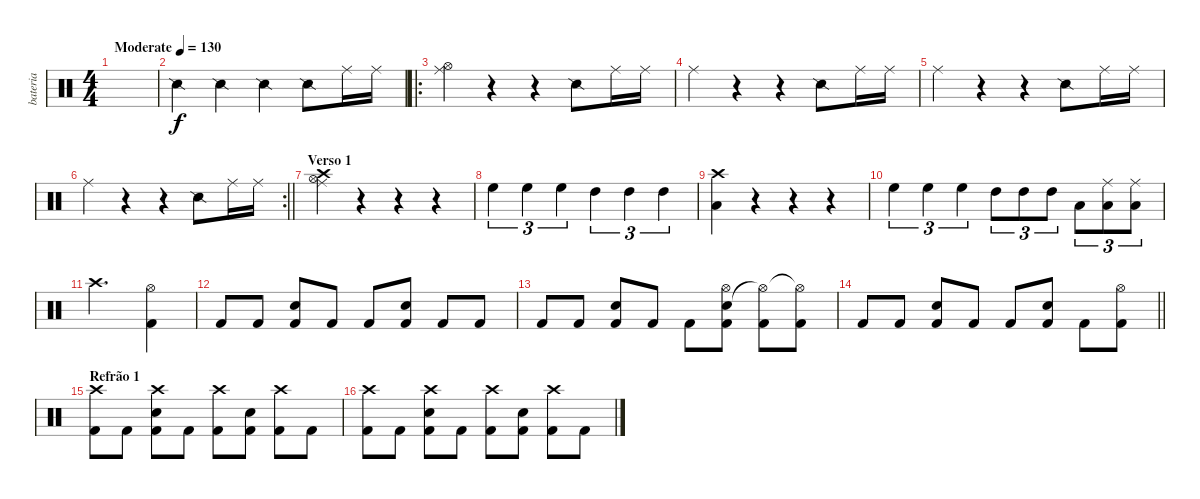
\track ("bateria" "bateria") {instrument percussion}
\staff {score}
\articulation defaults
\ts (4 4)
\tempo (130 "Moderate")
\clef neutral
\ks c
|
"Snare (side stick) 2".4 "Snare (side stick) 2".4 "Snare (side stick) 2".4 "Snare (side stick) 2".8 "Ride (middle)".16 "Ride (middle)".16 |
\ro
("Ride (middle)" "Hi-Hat (open)").4 r.4 r.4 "Snare (side stick) 2".8 "Ride (middle)".16 "Ride (middle)".16 |
"Ride (middle)".4 r.4 r.4 "Snare (side stick) 2".8 "Ride (middle)".16 "Ride (middle)".16 |
"Ride (middle)".4 r.4 r.4 "Snare (side stick) 2".8 "Ride (middle)".16 "Ride (middle)".16 |
\rc 2
\barLineRight lightlight "Ride (middle)".4
r.4 r.4 "Snare (side stick) 2".8 "Ride (middle)".16 "Ride (middle)".16 |
\section ("" "Verso 1")
("Hi-Hat (open)" "Crash high (hit)" "Ride (middle)").4 r.4 r.4 r.4 |
"High Floor Tom (hit)".4{tu (3 2)} "High Floor Tom (hit)".4{tu (3 2)} "High Floor Tom (hit)".4{tu (3 2)} "High Tom (hit)".4{tu (3 2)} "High Tom (hit)".4{tu (3 2)} "High Tom (hit)".4{tu (3 2)} |
("Crash high (hit)" "Low Tom (hit)").4 r.4 r.4 r.4 |
"High Floor Tom (hit)".4{tu (3 2)} "High Floor Tom (hit)".4{tu (3 2)} "High Floor Tom (hit)".4{tu (3 2)} "High Tom (hit)".8{tu (3 2)} "High Tom (hit)".8{tu (3 2)} "High Tom (hit)".8{tu (3 2)} "Low Tom (hit)".8{tu (3 2)} ("Low Tom (hit)" "Ride (middle)").8{tu (3 2)} ("Low Tom (hit)" "Ride (middle)").8{tu (3 2)} |
"Crash high (hit)".2{d} ("Hi-Hat (open)" "Kick (hit) 2").4 |
"Kick (hit) 2".8 "Kick (hit) 2".8 ("Kick (hit) 2" "Electric Snare (hit)").8 "Kick (hit) 2".8 "Kick (hit) 2".8 ("Kick (hit) 2" "Electric Snare (hit)").8 "Kick (hit) 2".8 "Kick (hit) 2".8 |
"Kick (hit) 2".8 "Kick (hit) 2".8 ("Kick (hit) 2" "Electric Snare (hit)").8 "Kick (hit) 2".8 "Kick (hit) 2".8 ("Kick (hit) 2" "Electric Snare (hit)" "Hi-Hat (open)").8 ("Kick (hit) 2" "Hi-Hat (open)"{t}).8 ("Kick (hit) 2" "Hi-Hat (open)"{t}).8 |
\barLineRight lightlight "Kick (hit) 2".8 "Kick (hit) 2".8
("Kick (hit) 2" "Electric Snare (hit)").8 "Kick (hit) 2".8 "Kick (hit) 2".8 ("Kick (hit) 2" "Electric Snare (hit)").8 "Kick (hit) 2".8 ("Hi-Hat (open)" "Kick (hit) 2").8 |
\section ("" "Refrão 1")
("Crash high (hit)" "Kick (hit) 2").8 "Kick (hit) 2".8 ("Crash high (hit)" "Kick (hit) 2" "Electric Snare (hit)").8 "Kick (hit) 2".8 ("Crash high (hit)" "Kick (hit) 2").8 ("Kick (hit) 2" "Electric Snare (hit)").8 ("Crash high (hit)" "Kick (hit) 2").8 "Kick (hit) 2".8 |
("Crash high (hit)" "Kick (hit) 2").8 "Kick (hit) 2".8 ("Crash high (hit)" "Kick (hit) 2" "Electric Snare (hit)").8 "Kick (hit) 2".8 ("Crash high (hit)" "Kick (hit) 2").8 ("Kick (hit) 2" "Electric Snare (hit)").8 ("Crash high (hit)" "Kick (hit) 2").8 "Kick (hit) 2".8
